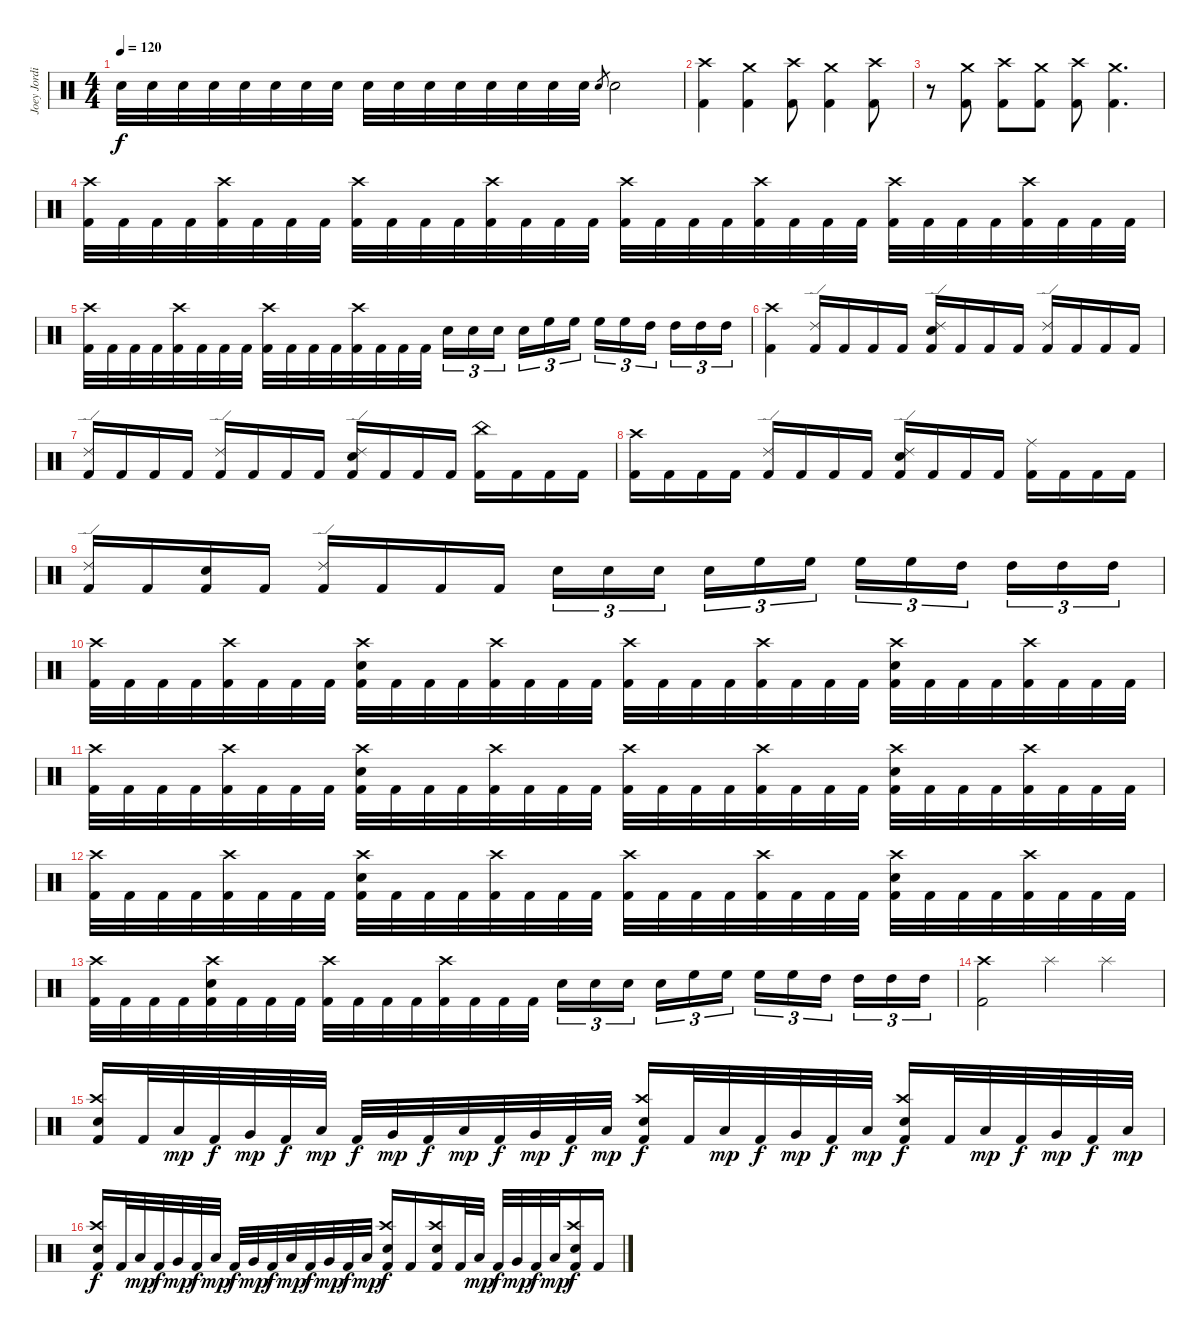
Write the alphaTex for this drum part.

\track ("Joey Jordison" "Joey Jordi") {instrument percussion}
\staff {score}
\articulation defaults
\ts (4 4)
\tempo 120
\clef neutral
\ks c "Snare (hit) 2".32{dy f volume 1} "Snare (hit) 2".32{volume 2} "Snare (hit) 2".32{volume 3} "Snare (hit) 2".32{volume 4} "Snare (hit) 2".32{volume 4} "Snare (hit) 2".32{volume 5} "Snare (hit) 2".32{volume 5} "Snare (hit) 2".32{volume 6} "Snare (hit) 2".32{volume 6} "Snare (hit) 2".32{volume 7} "Snare (hit) 2".32{volume 7} "Snare (hit) 2".32{volume 8} "Snare (hit) 2".32{volume 8} "Snare (hit) 2".32{volume 9} "Snare (hit) 2".32{volume 10} "Snare (hit) 2".32{volume 11} "Electric Snare (hit)".8{gr} "Electric Snare (hit)".2{volume 13}
|
("Crash high (hit)" "Kick (hit) 2").4 ("Crash medium (hit)" "Kick (hit) 2").4 ("Crash high (hit)" "Kick (hit) 2").8 ("Crash medium (hit)" "Kick (hit) 2").4 ("Crash high (hit)" "Kick (hit) 2").8 |
r.8 ("Crash medium (hit)" "Kick (hit) 2").8 ("Crash high (hit)" "Kick (hit) 2").8 ("Crash medium (hit)" "Kick (hit) 2").8 ("Crash high (hit)" "Kick (hit) 2").8 ("Crash medium (hit)" "Kick (hit) 2").4{d} |
("Crash high (hit)" "Kick (hit) 2").32 "Kick (hit) 2".32 "Kick (hit) 2".32 "Kick (hit) 2".32 ("Crash high (hit)" "Kick (hit) 2").32 "Kick (hit) 2".32 "Kick (hit) 2".32 "Kick (hit) 2".32 ("Crash high (hit)" "Kick (hit) 2").32 "Kick (hit) 2".32 "Kick (hit) 2".32 "Kick (hit) 2".32 ("Crash high (hit)" "Kick (hit) 2").32 "Kick (hit) 2".32 "Kick (hit) 2".32 "Kick (hit) 2".32 ("Crash high (hit)" "Kick (hit) 2").32 "Kick (hit) 2".32 "Kick (hit) 2".32 "Kick (hit) 2".32 ("Crash high (hit)" "Kick (hit) 2").32 "Kick (hit) 2".32 "Kick (hit) 2".32 "Kick (hit) 2".32 ("Crash high (hit)" "Kick (hit) 2").32 "Kick (hit) 2".32 "Kick (hit) 2".32 "Kick (hit) 2".32 ("Crash high (hit)" "Kick (hit) 2").32 "Kick (hit) 2".32 "Kick (hit) 2".32 "Kick (hit) 2".32 |
("Crash high (hit)" "Kick (hit) 2").32 "Kick (hit) 2".32 "Kick (hit) 2".32 "Kick (hit) 2".32 ("Crash high (hit)" "Kick (hit) 2").32 "Kick (hit) 2".32 "Kick (hit) 2".32 "Kick (hit) 2".32 ("Crash high (hit)" "Kick (hit) 2").32 "Kick (hit) 2".32 "Kick (hit) 2".32 "Kick (hit) 2".32 ("Crash high (hit)" "Kick (hit) 2").32 "Kick (hit) 2".32 "Kick (hit) 2".32 "Kick (hit) 2".32 "Electric Snare (hit)".16{tu (3 2)} "Electric Snare (hit)".16{tu (3 2)} "Electric Snare (hit)".16{tu (3 2) beam splitsecondary} "Electric Snare (hit)".16{tu (3 2)} "High Floor Tom (hit)".16{tu (3 2)} "High Floor Tom (hit)".16{tu (3 2)} "High Floor Tom (hit)".16{tu (3 2)} "High Floor Tom (hit)".16{tu (3 2)} "High Tom (hit)".16{tu (3 2) beam splitsecondary} "High Tom (hit)".16{tu (3 2)} "High Tom (hit)".16{tu (3 2)} "High Tom (hit)".16{tu (3 2)} |
("Crash high (hit)" "Kick (hit) 2").4 ("Ride (edge) 2" "Kick (hit) 2").16 "Kick (hit) 2".16 "Kick (hit) 2".16 "Kick (hit) 2".16 ("Ride (edge) 2" "Electric Snare (hit)" "Kick (hit) 2").16 "Kick (hit) 2".16 "Kick (hit) 2".16 "Kick (hit) 2".16 ("Ride (edge) 2" "Kick (hit) 2").16 "Kick (hit) 2".16 "Kick (hit) 2".16 "Kick (hit) 2".16 |
("Ride (edge) 2" "Kick (hit) 2").16 "Kick (hit) 2".16 "Kick (hit) 2".16 "Kick (hit) 2".16 ("Ride (edge) 2" "Kick (hit) 2").16 "Kick (hit) 2".16 "Kick (hit) 2".16 "Kick (hit) 2".16 ("Ride (edge) 2" "Electric Snare (hit)" "Kick (hit) 2").16 "Kick (hit) 2".16 "Kick (hit) 2".16 "Kick (hit) 2".16 ("China (hit)" "Kick (hit) 2").16 "Kick (hit) 2".16 "Kick (hit) 2".16 "Kick (hit) 2".16 |
("Crash high (hit)" "Kick (hit) 2").16 "Kick (hit) 2".16 "Kick (hit) 2".16 "Kick (hit) 2".16 ("Ride (edge) 2" "Kick (hit) 2").16 "Kick (hit) 2".16 "Kick (hit) 2".16 "Kick (hit) 2".16 ("Ride (edge) 2" "Electric Snare (hit)" "Kick (hit) 2").16 "Kick (hit) 2".16 "Kick (hit) 2".16 "Kick (hit) 2".16 ("Ride (middle)" "Kick (hit) 2").16 "Kick (hit) 2".16 "Kick (hit) 2".16 "Kick (hit) 2".16 |
("Ride (edge) 2" "Kick (hit) 2").16 "Kick (hit) 2".16 ("Electric Snare (hit)" "Kick (hit) 2").16 "Kick (hit) 2".16 ("Ride (edge) 2" "Kick (hit) 2").16 "Kick (hit) 2".16 "Kick (hit) 2".16 "Kick (hit) 2".16 "Electric Snare (hit)".16{tu (3 2)} "Electric Snare (hit)".16{tu (3 2)} "Electric Snare (hit)".16{tu (3 2) beam splitsecondary} "Electric Snare (hit)".16{tu (3 2)} "High Floor Tom (hit)".16{tu (3 2)} "High Floor Tom (hit)".16{tu (3 2)} "High Floor Tom (hit)".16{tu (3 2)} "High Floor Tom (hit)".16{tu (3 2)} "High Tom (hit)".16{tu (3 2) beam splitsecondary} "High Tom (hit)".16{tu (3 2)} "High Tom (hit)".16{tu (3 2)} "High Tom (hit)".16{tu (3 2)} |
("Crash high (hit)" "Kick (hit) 2").32 "Kick (hit) 2".32 "Kick (hit) 2".32 "Kick (hit) 2".32 ("Crash high (hit)" "Kick (hit) 2").32 "Kick (hit) 2".32 "Kick (hit) 2".32 "Kick (hit) 2".32 ("Crash high (hit)" "Electric Snare (hit)" "Kick (hit) 2").32 "Kick (hit) 2".32 "Kick (hit) 2".32 "Kick (hit) 2".32 ("Crash high (hit)" "Kick (hit) 2").32 "Kick (hit) 2".32 "Kick (hit) 2".32 "Kick (hit) 2".32 ("Crash high (hit)" "Kick (hit) 2").32 "Kick (hit) 2".32 "Kick (hit) 2".32 "Kick (hit) 2".32 ("Crash high (hit)" "Kick (hit) 2").32 "Kick (hit) 2".32 "Kick (hit) 2".32 "Kick (hit) 2".32 ("Crash high (hit)" "Electric Snare (hit)" "Kick (hit) 2").32 "Kick (hit) 2".32 "Kick (hit) 2".32 "Kick (hit) 2".32 ("Crash high (hit)" "Kick (hit) 2").32 "Kick (hit) 2".32 "Kick (hit) 2".32 "Kick (hit) 2".32 |
("Crash high (hit)" "Kick (hit) 2").32 "Kick (hit) 2".32 "Kick (hit) 2".32 "Kick (hit) 2".32 ("Crash high (hit)" "Kick (hit) 2").32 "Kick (hit) 2".32 "Kick (hit) 2".32 "Kick (hit) 2".32 ("Crash high (hit)" "Electric Snare (hit)" "Kick (hit) 2").32 "Kick (hit) 2".32 "Kick (hit) 2".32 "Kick (hit) 2".32 ("Crash high (hit)" "Kick (hit) 2").32 "Kick (hit) 2".32 "Kick (hit) 2".32 "Kick (hit) 2".32 ("Crash high (hit)" "Kick (hit) 2").32 "Kick (hit) 2".32 "Kick (hit) 2".32 "Kick (hit) 2".32 ("Crash high (hit)" "Kick (hit) 2").32 "Kick (hit) 2".32 "Kick (hit) 2".32 "Kick (hit) 2".32 ("Crash high (hit)" "Electric Snare (hit)" "Kick (hit) 2").32 "Kick (hit) 2".32 "Kick (hit) 2".32 "Kick (hit) 2".32 ("Crash high (hit)" "Kick (hit) 2").32 "Kick (hit) 2".32 "Kick (hit) 2".32 "Kick (hit) 2".32 |
("Crash high (hit)" "Kick (hit) 2").32 "Kick (hit) 2".32 "Kick (hit) 2".32 "Kick (hit) 2".32 ("Crash high (hit)" "Kick (hit) 2").32 "Kick (hit) 2".32 "Kick (hit) 2".32 "Kick (hit) 2".32 ("Crash high (hit)" "Electric Snare (hit)" "Kick (hit) 2").32 "Kick (hit) 2".32 "Kick (hit) 2".32 "Kick (hit) 2".32 ("Crash high (hit)" "Kick (hit) 2").32 "Kick (hit) 2".32 "Kick (hit) 2".32 "Kick (hit) 2".32 ("Crash high (hit)" "Kick (hit) 2").32 "Kick (hit) 2".32 "Kick (hit) 2".32 "Kick (hit) 2".32 ("Crash high (hit)" "Kick (hit) 2").32 "Kick (hit) 2".32 "Kick (hit) 2".32 "Kick (hit) 2".32 ("Crash high (hit)" "Electric Snare (hit)" "Kick (hit) 2").32 "Kick (hit) 2".32 "Kick (hit) 2".32 "Kick (hit) 2".32 ("Crash high (hit)" "Kick (hit) 2").32 "Kick (hit) 2".32 "Kick (hit) 2".32 "Kick (hit) 2".32 |
("Crash high (hit)" "Kick (hit) 2").32 "Kick (hit) 2".32 "Kick (hit) 2".32 "Kick (hit) 2".32 ("Crash high (hit)" "Electric Snare (hit)" "Kick (hit) 2").32 "Kick (hit) 2".32 "Kick (hit) 2".32 "Kick (hit) 2".32 ("Crash high (hit)" "Kick (hit) 2").32 "Kick (hit) 2".32 "Kick (hit) 2".32 "Kick (hit) 2".32 ("Crash high (hit)" "Kick (hit) 2").32 "Kick (hit) 2".32 "Kick (hit) 2".32 "Kick (hit) 2".32 "Electric Snare (hit)".16{tu (3 2)} "Electric Snare (hit)".16{tu (3 2)} "Electric Snare (hit)".16{tu (3 2) beam splitsecondary} "Electric Snare (hit)".16{tu (3 2)} "High Floor Tom (hit)".16{tu (3 2)} "High Floor Tom (hit)".16{tu (3 2)} "High Floor Tom (hit)".16{tu (3 2)} "High Floor Tom (hit)".16{tu (3 2)} "High Tom (hit)".16{tu (3 2) beam splitsecondary} "High Tom (hit)".16{tu (3 2)} "High Tom (hit)".16{tu (3 2)} "High Tom (hit)".16{tu (3 2)} |
("Crash high (hit)" "Kick (hit) 2").2 "Splash (hit)".4 "Splash (hit)".4 |
("Crash high (hit)" "Electric Snare (hit)" "Kick (hit) 2").16 "Kick (hit) 2".32 "Low Tom (hit)".32{dy mp} "Kick (hit) 2".32{dy f} "Very Low Tom (hit)".32{dy mp} "Kick (hit) 2".32{dy f} "Low Tom (hit)".32{dy mp} "Kick (hit) 2".32{dy f} "Very Low Tom (hit)".32{dy mp} "Kick (hit) 2".32{dy f} "Low Tom (hit)".32{dy mp} "Kick (hit) 2".32{dy f} "Very Low Tom (hit)".32{dy mp} "Kick (hit) 2".32{dy f} "Low Tom (hit)".32{dy mp} ("Crash high (hit)" "Electric Snare (hit)" "Kick (hit) 2").16{dy f} "Kick (hit) 2".32 "Low Tom (hit)".32{dy mp} "Kick (hit) 2".32{dy f} "Very Low Tom (hit)".32{dy mp} "Kick (hit) 2".32{dy f} "Low Tom (hit)".32{dy mp} ("Crash high (hit)" "Electric Snare (hit)" "Kick (hit) 2").16{dy f} "Kick (hit) 2".32 "Low Tom (hit)".32{dy mp} "Kick (hit) 2".32{dy f} "Very Low Tom (hit)".32{dy mp} "Kick (hit) 2".32{dy f} "Low Tom (hit)".32{dy mp} |
("Crash high (hit)" "Electric Snare (hit)" "Kick (hit) 2").16{dy f} "Kick (hit) 2".32 "Low Tom (hit)".32{dy mp} "Kick (hit) 2".32{dy f} "Very Low Tom (hit)".32{dy mp} "Kick (hit) 2".32{dy f} "Low Tom (hit)".32{dy mp} "Kick (hit) 2".32{dy f} "Very Low Tom (hit)".32{dy mp} "Kick (hit) 2".32{dy f} "Low Tom (hit)".32{dy mp} "Kick (hit) 2".32{dy f} "Very Low Tom (hit)".32{dy mp} "Kick (hit) 2".32{dy f} "Low Tom (hit)".32{dy mp} ("Crash high (hit)" "Electric Snare (hit)" "Kick (hit) 2").16{dy f} "Kick (hit) 2".16 ("Crash high (hit)" "Electric Snare (hit)" "Kick (hit) 2").16 "Kick (hit) 2".32 "Low Tom (hit)".32{dy mp} "Kick (hit) 2".32{dy f} "Very Low Tom (hit)".32{dy mp} "Kick (hit) 2".32{dy f} "Low Tom (hit)".32{dy mp} ("Crash high (hit)" "Electric Snare (hit)" "Kick (hit) 2").16{dy f} "Kick (hit) 2".16
